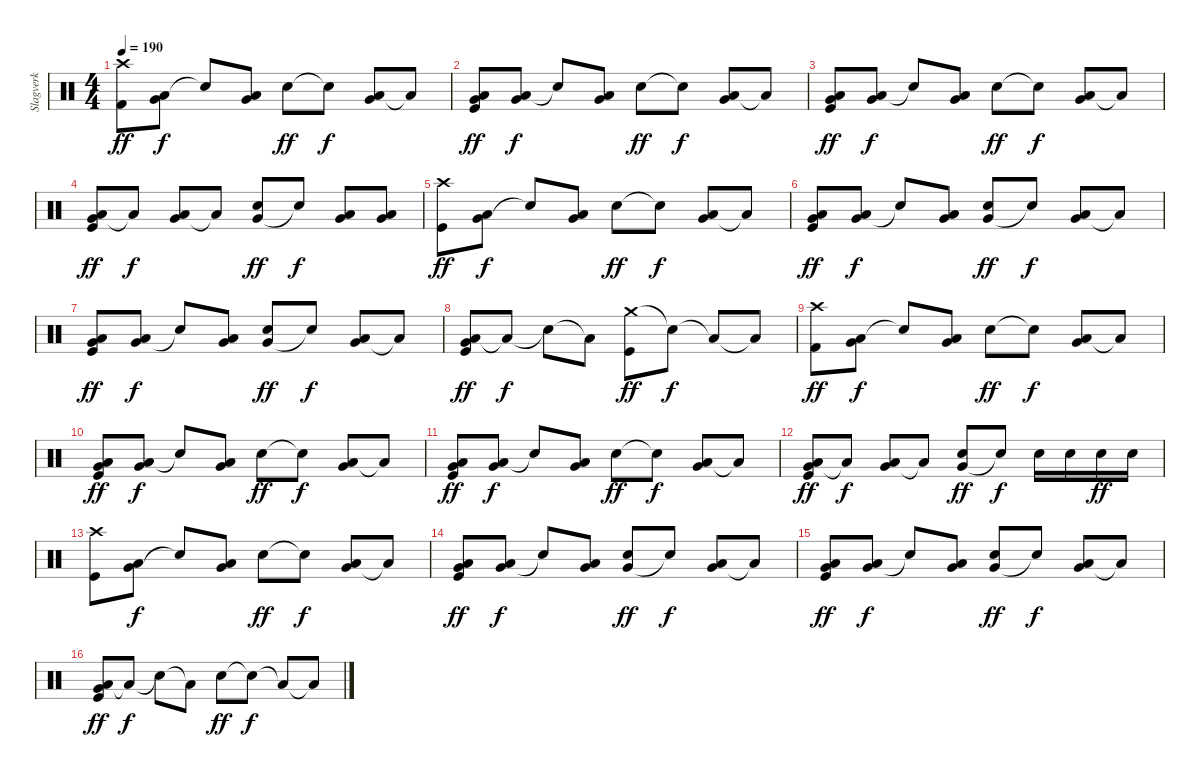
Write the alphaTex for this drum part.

\track ("Slagverk" "Slagverk") {instrument percussion}
\staff {score}
\articulation defaults
\ts (4 4)
\tempo 190
\clef neutral
\ks c
("Crash high (hit)" "Kick (hit) 2").8{dy ff} ("Low Tom (hit)" "Very Low Tom (hit)").8{bu 60 dy f} "Snare (hit)"{t}.8 ("Low Tom (hit)" "Very Low Tom (hit)").8{bu 60} "Snare (hit) 2".8{dy ff} "Snare (hit)"{t}.8{dy f} ("Low Tom (hit)" "Very Low Tom (hit)").8{bu 60} "Low Floor Tom (hit)"{t}.8 |
("Low Tom (hit)" "Very Low Tom (hit)" "Kick (hit)").8{bu 60 dy ff} ("Low Tom (hit)" "Very Low Tom (hit)").8{bu 60 dy f} "Snare (hit)"{t}.8 ("Low Tom (hit)" "Very Low Tom (hit)").8{bu 60} "Snare (hit) 2".8{dy ff} "Snare (hit)"{t}.8{dy f} ("Low Tom (hit)" "Very Low Tom (hit)").8{bu 60} "Low Floor Tom (hit)"{t}.8 |
("Low Tom (hit)" "Very Low Tom (hit)" "Kick (hit)").8{bu 60 dy ff} ("Low Tom (hit)" "Very Low Tom (hit)").8{bu 60 dy f} "Snare (hit)"{t}.8 ("Low Tom (hit)" "Very Low Tom (hit)").8{bu 60} "Snare (hit) 2".8{dy ff} "Snare (hit)"{t}.8{dy f} ("Low Tom (hit)" "Very Low Tom (hit)").8{bu 60} "Low Floor Tom (hit)"{t}.8 |
("Very Low Tom (hit)" "Low Floor Tom (hit)" "Kick (hit)").8{bu 60 dy ff} "Low Floor Tom (hit)"{t}.8{dy f} ("Very Low Tom (hit)" "Low Floor Tom (hit)").8{bu 120} "Low Floor Tom (hit)"{t}.8 ("Very Low Tom (hit)" "Snare (hit) 2").8{bu 60 dy ff} "Snare (hit)"{t}.8{dy f} ("Very Low Tom (hit)" "Low Floor Tom (hit)").8{bu 60} ("Very Low Tom (hit)" "Low Floor Tom (hit)").8{bu 60} |
("Crash high (hit)" "Kick (hit)").8{dy ff} ("Very Low Tom (hit)" "Low Floor Tom (hit)").8{bu 60 dy f} "Snare (hit)"{t}.8 ("Very Low Tom (hit)" "Low Floor Tom (hit)").8{bu 60} "Snare (hit) 2".8{dy ff} "Snare (hit)"{t}.8{dy f} ("Very Low Tom (hit)" "Low Floor Tom (hit)").8{bu 60} "Low Floor Tom (hit)"{t}.8 |
("Very Low Tom (hit)" "Low Floor Tom (hit)" "Kick (hit)").8{bu 60 dy ff} ("Very Low Tom (hit)" "Low Floor Tom (hit)").8{bu 60 dy f} "Snare (hit)"{t}.8 ("Very Low Tom (hit)" "Low Floor Tom (hit)").8{bu 60} ("Very Low Tom (hit)" "Snare (hit) 2").8{bu 60 dy ff} "Snare (hit)"{t}.8{dy f} ("Very Low Tom (hit)" "Low Floor Tom (hit)").8{bu 60} "Low Floor Tom (hit)"{t}.8 |
("Very Low Tom (hit)" "Low Floor Tom (hit)" "Kick (hit)").8{bu 60 dy ff} ("Very Low Tom (hit)" "Low Floor Tom (hit)").8{bu 60 dy f} "Snare (hit)"{t}.8 ("Very Low Tom (hit)" "Low Floor Tom (hit)").8{bu 60} ("Very Low Tom (hit)" "Snare (hit) 2").8{bu 60 dy ff} "Snare (hit)"{t}.8{dy f} ("Very Low Tom (hit)" "Low Floor Tom (hit)").8{bu 60} "Low Floor Tom (hit)"{t}.8 |
("Low Floor Tom (hit)" "Very Low Tom (hit)" "Kick (hit)").8{bu 120 dy ff} "Low Floor Tom (hit)"{t}.8{dy f} "Snare (hit)"{t}.8 "Low Floor Tom (hit)"{t}.8 ("Crash medium (hit)" "Kick (hit)").8{dy ff} "Snare (hit)"{t}.8{dy f} "Low Floor Tom (hit)"{t}.8 "Low Floor Tom (hit)"{t}.8 |
("Crash high (hit)" "Kick (hit) 2").8{dy ff} ("Low Tom (hit)" "Very Low Tom (hit)").8{bu 60 dy f} "Snare (hit)"{t}.8 ("Low Tom (hit)" "Very Low Tom (hit)").8{bu 60} "Snare (hit) 2".8{dy ff} "Snare (hit)"{t}.8{dy f} ("Low Tom (hit)" "Very Low Tom (hit)").8{bu 60} "Low Floor Tom (hit)"{t}.8 |
("Low Tom (hit)" "Very Low Tom (hit)" "Kick (hit)").8{bu 60 dy ff} ("Low Tom (hit)" "Very Low Tom (hit)").8{bu 60 dy f} "Snare (hit)"{t}.8 ("Low Tom (hit)" "Very Low Tom (hit)").8{bu 60} "Snare (hit) 2".8{dy ff} "Snare (hit)"{t}.8{dy f} ("Low Tom (hit)" "Very Low Tom (hit)").8{bu 60} "Low Floor Tom (hit)"{t}.8 |
("Low Tom (hit)" "Very Low Tom (hit)" "Kick (hit)").8{bu 60 dy ff} ("Low Tom (hit)" "Very Low Tom (hit)").8{bu 60 dy f} "Snare (hit)"{t}.8 ("Low Tom (hit)" "Very Low Tom (hit)").8{bu 60} "Snare (hit) 2".8{dy ff} "Snare (hit)"{t}.8{dy f} ("Low Tom (hit)" "Very Low Tom (hit)").8{bu 60} "Low Floor Tom (hit)"{t}.8 |
("Very Low Tom (hit)" "Low Floor Tom (hit)" "Kick (hit)").8{bu 60 dy ff} "Low Floor Tom (hit)"{t}.8{dy f} ("Very Low Tom (hit)" "Low Floor Tom (hit)").8{bu 120} "Low Floor Tom (hit)"{t}.8 ("Very Low Tom (hit)" "Snare (hit) 2").8{bu 60 dy ff} "Snare (hit)"{t}.8{dy f} "Snare (hit) 2".16 "Snare (hit) 2".16 "Snare (hit) 2".16{dy ff} "Snare (hit) 2".16 |
("Crash high (hit)" "Kick (hit)").8 ("Very Low Tom (hit)" "Low Floor Tom (hit)").8{bu 60 dy f} "Snare (hit)"{t}.8 ("Very Low Tom (hit)" "Low Floor Tom (hit)").8{bu 60} "Snare (hit) 2".8{dy ff} "Snare (hit)"{t}.8{dy f} ("Very Low Tom (hit)" "Low Floor Tom (hit)").8{bu 60} "Low Floor Tom (hit)"{t}.8 |
("Very Low Tom (hit)" "Low Floor Tom (hit)" "Kick (hit)").8{bu 60 dy ff} ("Very Low Tom (hit)" "Low Floor Tom (hit)").8{bu 60 dy f} "Snare (hit)"{t}.8 ("Very Low Tom (hit)" "Low Floor Tom (hit)").8{bu 60} ("Very Low Tom (hit)" "Snare (hit) 2").8{bu 60 dy ff} "Snare (hit)"{t}.8{dy f} ("Very Low Tom (hit)" "Low Floor Tom (hit)").8{bu 60} "Low Floor Tom (hit)"{t}.8 |
("Very Low Tom (hit)" "Low Floor Tom (hit)" "Kick (hit)").8{bu 60 dy ff} ("Very Low Tom (hit)" "Low Floor Tom (hit)").8{bu 60 dy f} "Snare (hit)"{t}.8 ("Very Low Tom (hit)" "Low Floor Tom (hit)").8{bu 60} ("Very Low Tom (hit)" "Snare (hit) 2").8{bu 60 dy ff} "Snare (hit)"{t}.8{dy f} ("Very Low Tom (hit)" "Low Floor Tom (hit)").8{bu 60} "Low Floor Tom (hit)"{t}.8 |
("Low Floor Tom (hit)" "Very Low Tom (hit)" "Kick (hit)").8{bu 120 dy ff} "Low Floor Tom (hit)"{t}.8{dy f} "Snare (hit)"{t}.8 "Low Floor Tom (hit)"{t}.8 "Snare (hit) 2".8{dy ff} "Snare (hit)"{t}.8{dy f} "Low Floor Tom (hit)"{t}.8 "Low Floor Tom (hit)"{t}.8
